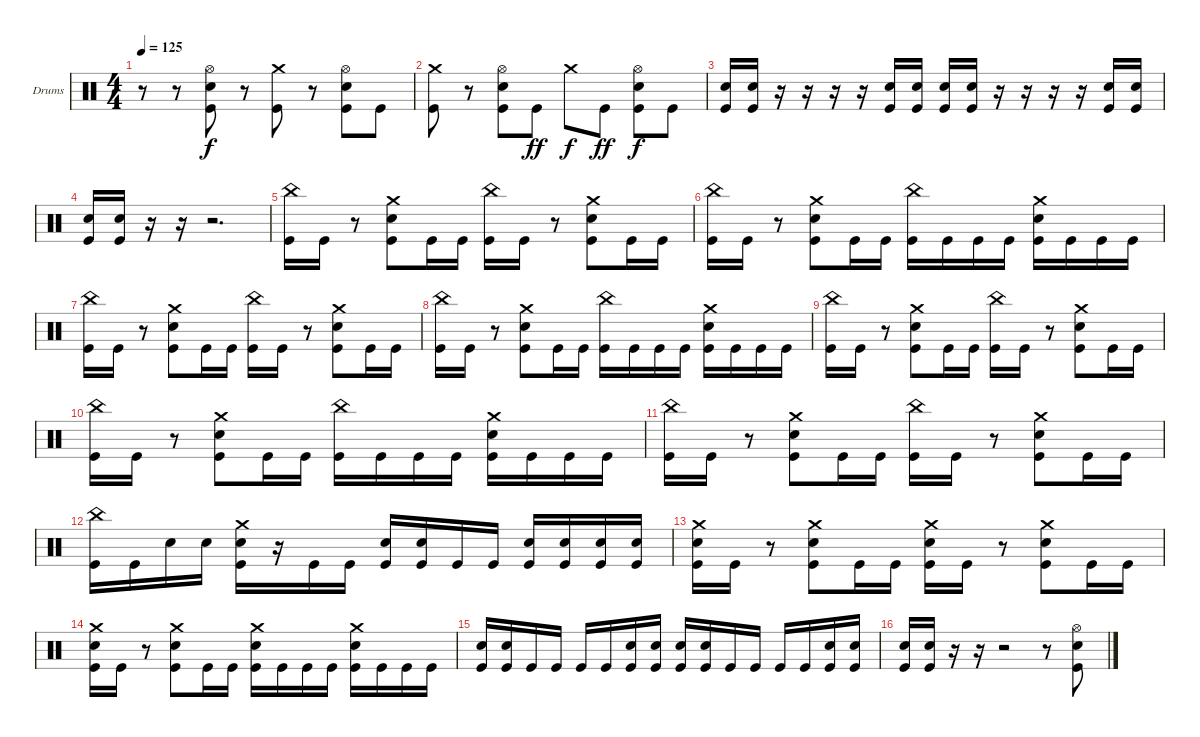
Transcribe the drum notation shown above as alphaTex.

\defaultSystemsLayout 4
\bracketExtendMode groupsimilarinstruments
\firstSystemTrackNameOrientation horizontal
\otherSystemsTrackNameOrientation horizontal
\track ("Drumkit" "Drums") {instrument percussion}
\staff {score}
\articulation defaults
\ts (4 4)
\tempo 125
\clef neutral
\ks c
r.8{dy f} r.8 ("Kick (hit)" "Snare (hit) 2" "Hi-Hat (open)").8 r.8 ("Kick (hit)" "Crash medium (hit)").8 r.8 ("Kick (hit)" "Snare (hit) 2" "Hi-Hat (open)").8 "Kick (hit)".8 |
("Kick (hit)" "Crash medium (hit)").8 r.8 ("Kick (hit)" "Snare (hit) 2" "Hi-Hat (open)").8 "Kick (hit)".8{dy ff} "Crash medium (hit)".8{dy f} "Kick (hit)".8{dy ff} ("Kick (hit)" "Snare (hit) 2" "Hi-Hat (open)").8{dy f} "Kick (hit)".8 |
("Kick (hit)" "Snare (hit) 2").16 ("Kick (hit)" "Snare (hit) 2").16 r.16 r.16 r.16 r.16 ("Kick (hit)" "Snare (hit) 2").16 ("Kick (hit)" "Snare (hit) 2").16 ("Kick (hit)" "Snare (hit) 2").16 ("Kick (hit)" "Snare (hit) 2").16 r.16 r.16 r.16 r.16 ("Kick (hit)" "Snare (hit) 2").16 ("Kick (hit)" "Snare (hit) 2").16 |
("Kick (hit)" "Snare (hit) 2").16 ("Kick (hit)" "Snare (hit) 2").16 r.16 r.16 r.2{d} |
("Kick (hit)" "China (hit)").16 "Kick (hit)".16 r.8 ("Kick (hit)" "Snare (hit) 2" "Crash medium (hit)").8 "Kick (hit)".16 "Kick (hit)".16 ("Kick (hit)" "China (hit)").16 "Kick (hit)".16 r.8 ("Kick (hit)" "Snare (hit) 2" "Crash medium (hit)").8 "Kick (hit)".16 "Kick (hit)".16 |
("Kick (hit)" "China (hit)").16 "Kick (hit)".16 r.8 ("Kick (hit)" "Snare (hit) 2" "Crash medium (hit)").8 "Kick (hit)".16 "Kick (hit)".16 ("Kick (hit)" "China (hit)").16 "Kick (hit)".16 "Kick (hit)".16 "Kick (hit)".16 ("Kick (hit)" "Snare (hit) 2" "Crash medium (hit)").16 "Kick (hit)".16 "Kick (hit)".16 "Kick (hit)".16 |
("Kick (hit)" "China (hit)").16 "Kick (hit)".16 r.8 ("Kick (hit)" "Snare (hit) 2" "Crash medium (hit)").8 "Kick (hit)".16 "Kick (hit)".16 ("Kick (hit)" "China (hit)").16 "Kick (hit)".16 r.8 ("Kick (hit)" "Snare (hit) 2" "Crash medium (hit)").8 "Kick (hit)".16 "Kick (hit)".16 |
("Kick (hit)" "China (hit)").16 "Kick (hit)".16 r.8 ("Kick (hit)" "Snare (hit) 2" "Crash medium (hit)").8 "Kick (hit)".16 "Kick (hit)".16 ("Kick (hit)" "China (hit)").16 "Kick (hit)".16 "Kick (hit)".16 "Kick (hit)".16 ("Kick (hit)" "Snare (hit) 2" "Crash medium (hit)").16 "Kick (hit)".16 "Kick (hit)".16 "Kick (hit)".16 |
("Kick (hit)" "China (hit)").16 "Kick (hit)".16 r.8 ("Kick (hit)" "Snare (hit) 2" "Crash medium (hit)").8 "Kick (hit)".16 "Kick (hit)".16 ("Kick (hit)" "China (hit)").16 "Kick (hit)".16 r.8 ("Kick (hit)" "Snare (hit) 2" "Crash medium (hit)").8 "Kick (hit)".16 "Kick (hit)".16 |
("Kick (hit)" "China (hit)").16 "Kick (hit)".16 r.8 ("Kick (hit)" "Snare (hit) 2" "Crash medium (hit)").8 "Kick (hit)".16 "Kick (hit)".16 ("Kick (hit)" "China (hit)").16 "Kick (hit)".16 "Kick (hit)".16 "Kick (hit)".16 ("Kick (hit)" "Snare (hit) 2" "Crash medium (hit)").16 "Kick (hit)".16 "Kick (hit)".16 "Kick (hit)".16 |
("Kick (hit)" "China (hit)").16 "Kick (hit)".16 r.8 ("Kick (hit)" "Snare (hit) 2" "Crash medium (hit)").8 "Kick (hit)".16 "Kick (hit)".16 ("Kick (hit)" "China (hit)").16 "Kick (hit)".16 r.8 ("Kick (hit)" "Snare (hit) 2" "Crash medium (hit)").8 "Kick (hit)".16 "Kick (hit)".16 |
("Kick (hit)" "China (hit)").16 "Kick (hit)".16 "Snare (hit) 2".16 "Snare (hit) 2".16 ("Kick (hit)" "Snare (hit) 2" "Crash medium (hit)").16 r.16 "Kick (hit)".16 "Kick (hit)".16 ("Kick (hit)" "Snare (hit) 2").16 ("Kick (hit)" "Snare (hit) 2").16 "Kick (hit)".16 "Kick (hit)".16 ("Kick (hit)" "Snare (hit) 2").16 ("Kick (hit)" "Snare (hit) 2").16 ("Kick (hit)" "Snare (hit) 2").16 ("Kick (hit)" "Snare (hit) 2").16 |
("Kick (hit)" "Snare (hit) 2" "Crash medium (hit)").16 "Kick (hit)".16 r.8 ("Kick (hit)" "Snare (hit) 2" "Crash medium (hit)").8 "Kick (hit)".16 "Kick (hit)".16 ("Kick (hit)" "Snare (hit) 2" "Crash medium (hit)").16 "Kick (hit)".16 r.8 ("Kick (hit)" "Snare (hit) 2" "Crash medium (hit)").8 "Kick (hit)".16 "Kick (hit)".16 |
("Kick (hit)" "Snare (hit) 2" "Crash medium (hit)").16 "Kick (hit)".16 r.8 ("Kick (hit)" "Snare (hit) 2" "Crash medium (hit)").8 "Kick (hit)".16 "Kick (hit)".16 ("Kick (hit)" "Snare (hit) 2" "Crash medium (hit)").16 "Kick (hit)".16 "Kick (hit)".16 "Kick (hit)".16 ("Kick (hit)" "Snare (hit) 2" "Crash medium (hit)").16 "Kick (hit)".16 "Kick (hit)".16 "Kick (hit)".16 |
("Kick (hit)" "Snare (hit) 2").16 ("Kick (hit)" "Snare (hit) 2").16 "Kick (hit)".16 "Kick (hit)".16 "Kick (hit)".16 "Kick (hit)".16 ("Kick (hit)" "Snare (hit) 2").16 ("Kick (hit)" "Snare (hit) 2").16 ("Kick (hit)" "Snare (hit) 2").16 ("Kick (hit)" "Snare (hit) 2").16 "Kick (hit)".16 "Kick (hit)".16 "Kick (hit)".16 "Kick (hit)".16 ("Kick (hit)" "Snare (hit) 2").16 ("Kick (hit)" "Snare (hit) 2").16 |
("Kick (hit)" "Snare (hit) 2").16 ("Kick (hit)" "Snare (hit) 2").16 r.16 r.16 r.2 r.8 ("Kick (hit)" "Snare (hit) 2" "Hi-Hat (open)").8
